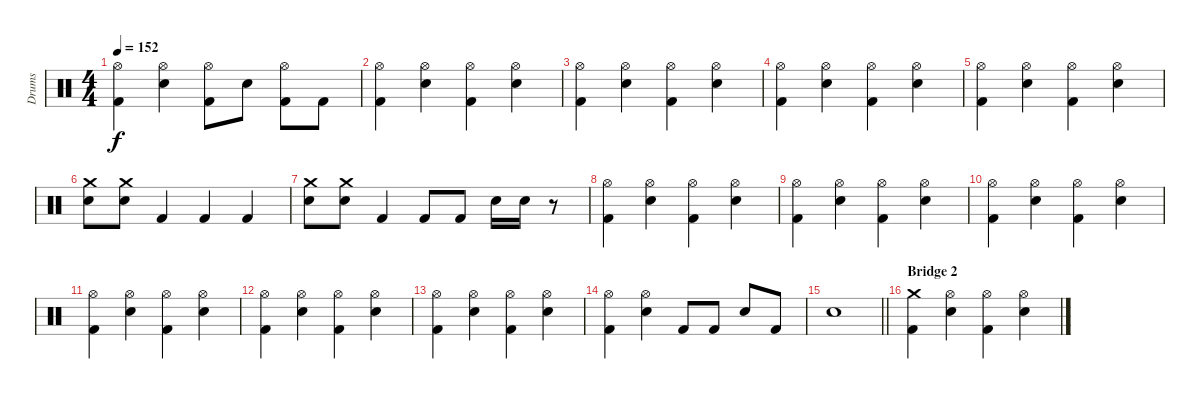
\track ("Drums" "Drums") {instrument percussion}
\staff {score}
\articulation defaults
\ts (4 4)
\tempo 152
\clef neutral
\ks c
("Hi-Hat (open)" "Kick (hit) 2").4{dy f} ("Hi-Hat (open)" "Electric Snare (hit)").4 ("Hi-Hat (open)" "Kick (hit) 2").8 "Electric Snare (hit)".8 ("Hi-Hat (open)" "Kick (hit) 2").8 "Kick (hit) 2".8 |
("Hi-Hat (open)" "Kick (hit) 2").4 ("Hi-Hat (open)" "Electric Snare (hit)").4 ("Hi-Hat (open)" "Kick (hit) 2").4 ("Hi-Hat (open)" "Electric Snare (hit)").4 |
("Hi-Hat (open)" "Kick (hit) 2").4 ("Hi-Hat (open)" "Electric Snare (hit)").4 ("Hi-Hat (open)" "Kick (hit) 2").4 ("Hi-Hat (open)" "Electric Snare (hit)").4 |
("Hi-Hat (open)" "Kick (hit) 2").4 ("Hi-Hat (open)" "Electric Snare (hit)").4 ("Hi-Hat (open)" "Kick (hit) 2").4 ("Hi-Hat (open)" "Electric Snare (hit)").4 |
("Hi-Hat (open)" "Kick (hit) 2").4 ("Hi-Hat (open)" "Electric Snare (hit)").4 ("Hi-Hat (open)" "Kick (hit) 2").4 ("Hi-Hat (open)" "Electric Snare (hit)").4 |
("Crash medium (hit)" "Electric Snare (hit)").8 ("Crash medium (hit)" "Electric Snare (hit)").8 "Kick (hit) 2".4 "Kick (hit) 2".4 "Kick (hit) 2".4 |
("Crash medium (hit)" "Electric Snare (hit)").8 ("Crash medium (hit)" "Electric Snare (hit)").8 "Kick (hit) 2".4 "Kick (hit) 2".8 "Kick (hit) 2".8 "Electric Snare (hit)".16 "Electric Snare (hit)".16 r.8 |
("Hi-Hat (open)" "Kick (hit) 2").4 ("Hi-Hat (open)" "Electric Snare (hit)").4 ("Hi-Hat (open)" "Kick (hit) 2").4 ("Hi-Hat (open)" "Electric Snare (hit)").4 |
("Hi-Hat (open)" "Kick (hit) 2").4 ("Hi-Hat (open)" "Electric Snare (hit)").4 ("Hi-Hat (open)" "Kick (hit) 2").4 ("Hi-Hat (open)" "Electric Snare (hit)").4 |
("Hi-Hat (open)" "Kick (hit) 2").4 ("Hi-Hat (open)" "Electric Snare (hit)").4 ("Hi-Hat (open)" "Kick (hit) 2").4 ("Hi-Hat (open)" "Electric Snare (hit)").4 |
("Hi-Hat (open)" "Kick (hit) 2").4 ("Hi-Hat (open)" "Electric Snare (hit)").4 ("Hi-Hat (open)" "Kick (hit) 2").4 ("Hi-Hat (open)" "Electric Snare (hit)").4 |
("Hi-Hat (open)" "Kick (hit) 2").4 ("Hi-Hat (open)" "Electric Snare (hit)").4 ("Hi-Hat (open)" "Kick (hit) 2").4 ("Hi-Hat (open)" "Electric Snare (hit)").4 |
("Hi-Hat (open)" "Kick (hit) 2").4 ("Hi-Hat (open)" "Electric Snare (hit)").4 ("Hi-Hat (open)" "Kick (hit) 2").4 ("Hi-Hat (open)" "Electric Snare (hit)").4 |
("Hi-Hat (open)" "Kick (hit) 2").4 ("Hi-Hat (open)" "Electric Snare (hit)").4 "Kick (hit) 2".8 "Kick (hit) 2".8 "Electric Snare (hit)".8 "Kick (hit) 2".8 |
\barLineRight lightlight "Electric Snare (hit)".1
|
\section ("" "Bridge 2")
("Crash medium (hit)" "Kick (hit) 2").4 ("Hi-Hat (open)" "Electric Snare (hit)").4 ("Hi-Hat (open)" "Kick (hit) 2").4 ("Hi-Hat (open)" "Electric Snare (hit)").4
